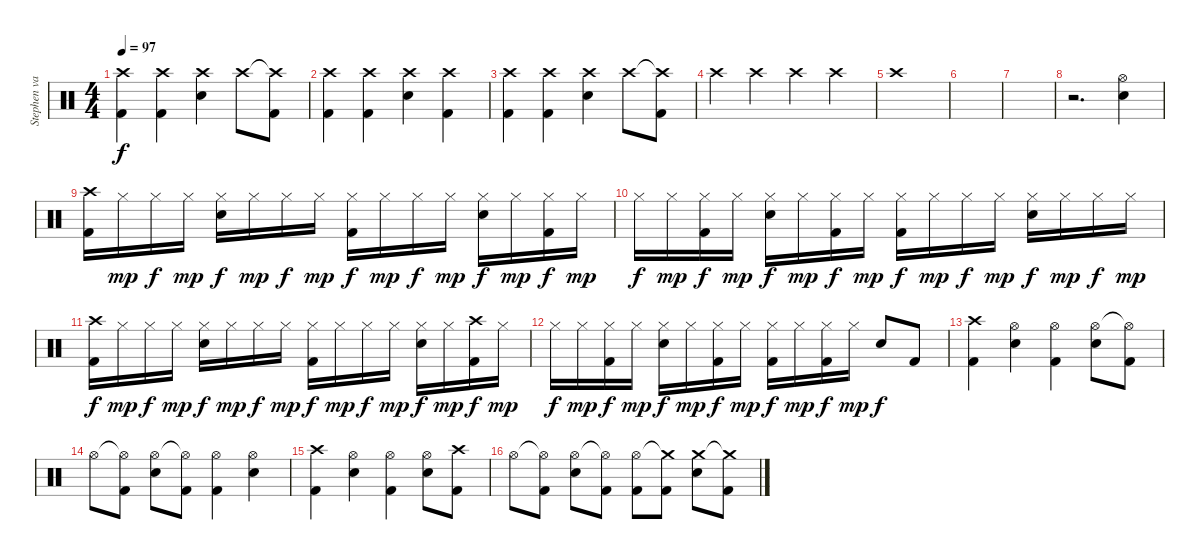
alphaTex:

\track ("Stephen van Haestregt (Drums)" "Stephen va") {instrument percussion}
\staff {score}
\articulation defaults
\ts (4 4)
\tempo 97
\clef neutral
\ks c
("Crash high (hit)" "Kick (hit) 2").4{dy f} ("Crash high (hit)" "Kick (hit) 2").4 ("Crash high (hit)" "Electric Snare (hit)").4 "Crash high (hit)".8 ("Crash high (hit)"{t} "Kick (hit) 2").8 |
("Crash high (hit)" "Kick (hit) 2").4 ("Crash high (hit)" "Kick (hit) 2").4 ("Crash high (hit)" "Electric Snare (hit)").4 ("Crash high (hit)" "Kick (hit) 2").4 |
("Crash high (hit)" "Kick (hit) 2").4 ("Crash high (hit)" "Kick (hit) 2").4 ("Crash high (hit)" "Electric Snare (hit)").4 "Crash high (hit)".8 ("Crash high (hit)"{t} "Kick (hit) 2").8 |
"Crash high (hit)".4 "Crash high (hit)".4 "Crash high (hit)".4 "Crash high (hit)".4 |
"Crash high (hit)".1 |
|
|
r.2{d} ("Hi-Hat (open)" "Electric Snare (hit)").4 |
("Crash high (hit)" "Kick (hit) 2").16 "Hi-Hat (closed)".16{dy mp} "Hi-Hat (closed)".16{dy f} "Hi-Hat (closed)".16{dy mp} ("Hi-Hat (closed)" "Electric Snare (hit)").16{dy f} "Hi-Hat (closed)".16{dy mp} "Hi-Hat (closed)".16{dy f} "Hi-Hat (closed)".16{dy mp} ("Hi-Hat (closed)" "Kick (hit) 2").16{dy f} "Hi-Hat (closed)".16{dy mp} "Hi-Hat (closed)".16{dy f} "Hi-Hat (closed)".16{dy mp} ("Hi-Hat (closed)" "Electric Snare (hit)").16{dy f} "Hi-Hat (closed)".16{dy mp} ("Hi-Hat (closed)" "Kick (hit) 2").16{dy f} "Hi-Hat (closed)".16{dy mp} |
"Hi-Hat (closed)".16{dy f} "Hi-Hat (closed)".16{dy mp} ("Hi-Hat (closed)" "Kick (hit) 2").16{dy f} "Hi-Hat (closed)".16{dy mp} ("Hi-Hat (closed)" "Electric Snare (hit)").16{dy f} "Hi-Hat (closed)".16{dy mp} ("Hi-Hat (closed)" "Kick (hit) 2").16{dy f} "Hi-Hat (closed)".16{dy mp} ("Hi-Hat (closed)" "Kick (hit) 2").16{dy f} "Hi-Hat (closed)".16{dy mp} "Hi-Hat (closed)".16{dy f} "Hi-Hat (closed)".16{dy mp} ("Hi-Hat (closed)" "Electric Snare (hit)").16{dy f} "Hi-Hat (closed)".16{dy mp} "Hi-Hat (closed)".16{dy f} "Hi-Hat (closed)".16{dy mp} |
("Crash high (hit)" "Kick (hit) 2").16{dy f} "Hi-Hat (closed)".16{dy mp} "Hi-Hat (closed)".16{dy f} "Hi-Hat (closed)".16{dy mp} ("Hi-Hat (closed)" "Electric Snare (hit)").16{dy f} "Hi-Hat (closed)".16{dy mp} "Hi-Hat (closed)".16{dy f} "Hi-Hat (closed)".16{dy mp} ("Hi-Hat (closed)" "Kick (hit) 2").16{dy f} "Hi-Hat (closed)".16{dy mp} "Hi-Hat (closed)".16{dy f} "Hi-Hat (closed)".16{dy mp} ("Hi-Hat (closed)" "Electric Snare (hit)").16{dy f} "Hi-Hat (closed)".16{dy mp} ("Crash high (hit)" "Kick (hit) 2").16{dy f} "Hi-Hat (closed)".16{dy mp} |
"Hi-Hat (closed)".16{dy f} "Hi-Hat (closed)".16{dy mp} ("Hi-Hat (closed)" "Kick (hit) 2").16{dy f} "Hi-Hat (closed)".16{dy mp} ("Hi-Hat (closed)" "Electric Snare (hit)").16{dy f} "Hi-Hat (closed)".16{dy mp} ("Hi-Hat (closed)" "Kick (hit) 2").16{dy f} "Hi-Hat (closed)".16{dy mp} ("Hi-Hat (closed)" "Kick (hit) 2").16{dy f} "Hi-Hat (closed)".16{dy mp} ("Hi-Hat (closed)" "Kick (hit) 2").16{dy f} "Hi-Hat (closed)".16{dy mp} "Electric Snare (hit)".8{dy f} "Kick (hit) 2".8 |
("Crash high (hit)" "Kick (hit) 2").4 ("Hi-Hat (open)" "Electric Snare (hit)").4 ("Hi-Hat (open)" "Kick (hit) 2").4 ("Hi-Hat (open)" "Electric Snare (hit)").8 ("Hi-Hat (open)"{t} "Kick (hit) 2").8 |
"Hi-Hat (open)".8 ("Hi-Hat (open)"{t} "Kick (hit) 2").8 ("Hi-Hat (open)" "Electric Snare (hit)").8 ("Hi-Hat (open)"{t} "Kick (hit) 2").8 ("Hi-Hat (open)" "Kick (hit) 2").4 ("Hi-Hat (open)" "Electric Snare (hit)").4 |
("Crash high (hit)" "Kick (hit) 2").4 ("Hi-Hat (open)" "Electric Snare (hit)").4 ("Hi-Hat (open)" "Kick (hit) 2").4 ("Hi-Hat (open)" "Electric Snare (hit)").8 ("Crash high (hit)" "Kick (hit) 2").8 |
"Hi-Hat (open)".8 ("Hi-Hat (open)"{t} "Kick (hit) 2").8 ("Hi-Hat (open)" "Electric Snare (hit)").8 ("Hi-Hat (open)"{t} "Kick (hit) 2").8 ("Hi-Hat (open)" "Kick (hit) 2").8 ("Crash medium (hit)"{t} "Kick (hit) 2").8 ("Crash medium (hit)" "Electric Snare (hit)").8 ("Crash medium (hit)"{t} "Kick (hit) 2").8
